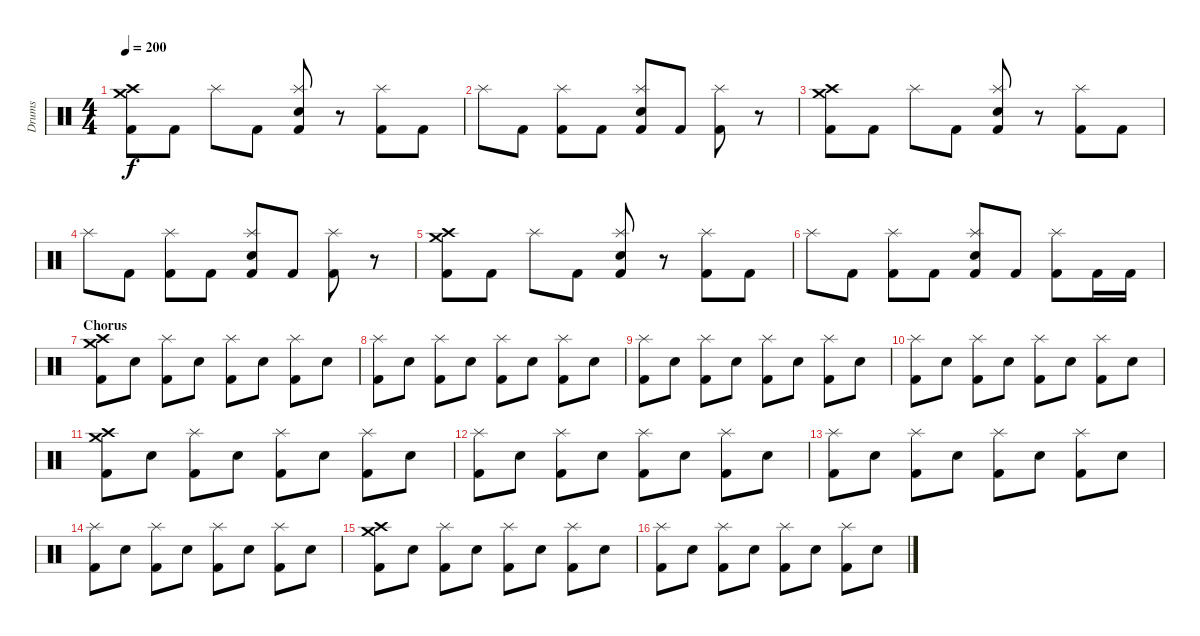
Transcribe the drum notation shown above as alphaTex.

\track ("Drums" "Drums") {instrument percussion}
\staff {score}
\articulation defaults
\ts (4 4)
\tempo 200
\clef neutral
\ks c
("Crash medium (hit)" "Crash high (hit)" "Kick (hit) 2").8{dy f} "Kick (hit) 2".8 "Splash (hit)".8 "Kick (hit) 2".8 ("Splash (hit)" "Snare (hit) 2" "Kick (hit) 2").8 r.8 ("Splash (hit)" "Kick (hit) 2").8 "Kick (hit) 2".8 |
"Splash (hit)".8 "Kick (hit) 2".8 ("Splash (hit)" "Kick (hit) 2").8 "Kick (hit) 2".8 ("Splash (hit)" "Snare (hit) 2" "Kick (hit) 2").8 "Kick (hit) 2".8 ("Splash (hit)" "Kick (hit) 2").8 r.8 |
("Crash medium (hit)" "Crash high (hit)" "Kick (hit) 2").8 "Kick (hit) 2".8 "Splash (hit)".8 "Kick (hit) 2".8 ("Splash (hit)" "Snare (hit) 2" "Kick (hit) 2").8 r.8 ("Splash (hit)" "Kick (hit) 2").8 "Kick (hit) 2".8 |
"Splash (hit)".8 "Kick (hit) 2".8 ("Splash (hit)" "Kick (hit) 2").8 "Kick (hit) 2".8 ("Splash (hit)" "Snare (hit) 2" "Kick (hit) 2").8 "Kick (hit) 2".8 ("Splash (hit)" "Kick (hit) 2").8 r.8 |
("Crash medium (hit)" "Crash high (hit)" "Kick (hit) 2").8 "Kick (hit) 2".8 "Splash (hit)".8 "Kick (hit) 2".8 ("Splash (hit)" "Snare (hit) 2" "Kick (hit) 2").8 r.8 ("Splash (hit)" "Kick (hit) 2").8 "Kick (hit) 2".8 |
"Splash (hit)".8 "Kick (hit) 2".8 ("Splash (hit)" "Kick (hit) 2").8 "Kick (hit) 2".8 ("Splash (hit)" "Snare (hit) 2" "Kick (hit) 2").8 "Kick (hit) 2".8 ("Splash (hit)" "Kick (hit) 2").8 "Kick (hit) 2".16 "Kick (hit) 2".16 |
\section ("" "Chorus")
("Crash medium (hit)" "Crash high (hit)" "Kick (hit) 2").8 "Snare (hit) 2".8 ("Splash (hit)" "Kick (hit) 2").8 "Snare (hit) 2".8 ("Splash (hit)" "Kick (hit) 2").8 "Snare (hit) 2".8 ("Splash (hit)" "Kick (hit) 2").8 "Snare (hit) 2".8 |
("Splash (hit)" "Kick (hit) 2").8 "Snare (hit) 2".8 ("Splash (hit)" "Kick (hit) 2").8 "Snare (hit) 2".8 ("Splash (hit)" "Kick (hit) 2").8 "Snare (hit) 2".8 ("Splash (hit)" "Kick (hit) 2").8 "Snare (hit) 2".8 |
("Splash (hit)" "Kick (hit) 2").8 "Snare (hit) 2".8 ("Splash (hit)" "Kick (hit) 2").8 "Snare (hit) 2".8 ("Splash (hit)" "Kick (hit) 2").8 "Snare (hit) 2".8 ("Splash (hit)" "Kick (hit) 2").8 "Snare (hit) 2".8 |
("Splash (hit)" "Kick (hit) 2").8 "Snare (hit) 2".8 ("Splash (hit)" "Kick (hit) 2").8 "Snare (hit) 2".8 ("Splash (hit)" "Kick (hit) 2").8 "Snare (hit) 2".8 ("Splash (hit)" "Kick (hit) 2").8 "Snare (hit) 2".8 |
("Crash medium (hit)" "Crash high (hit)" "Kick (hit) 2").8 "Snare (hit) 2".8 ("Splash (hit)" "Kick (hit) 2").8 "Snare (hit) 2".8 ("Splash (hit)" "Kick (hit) 2").8 "Snare (hit) 2".8 ("Splash (hit)" "Kick (hit) 2").8 "Snare (hit) 2".8 |
("Splash (hit)" "Kick (hit) 2").8 "Snare (hit) 2".8 ("Splash (hit)" "Kick (hit) 2").8 "Snare (hit) 2".8 ("Splash (hit)" "Kick (hit) 2").8 "Snare (hit) 2".8 ("Splash (hit)" "Kick (hit) 2").8 "Snare (hit) 2".8 |
("Splash (hit)" "Kick (hit) 2").8 "Snare (hit) 2".8 ("Splash (hit)" "Kick (hit) 2").8 "Snare (hit) 2".8 ("Splash (hit)" "Kick (hit) 2").8 "Snare (hit) 2".8 ("Splash (hit)" "Kick (hit) 2").8 "Snare (hit) 2".8 |
("Splash (hit)" "Kick (hit) 2").8 "Snare (hit) 2".8 ("Splash (hit)" "Kick (hit) 2").8 "Snare (hit) 2".8 ("Splash (hit)" "Kick (hit) 2").8 "Snare (hit) 2".8 ("Splash (hit)" "Kick (hit) 2").8 "Snare (hit) 2".8 |
("Crash medium (hit)" "Crash high (hit)" "Kick (hit) 2").8 "Snare (hit) 2".8 ("Splash (hit)" "Kick (hit) 2").8 "Snare (hit) 2".8 ("Splash (hit)" "Kick (hit) 2").8 "Snare (hit) 2".8 ("Splash (hit)" "Kick (hit) 2").8 "Snare (hit) 2".8 |
("Splash (hit)" "Kick (hit) 2").8 "Snare (hit) 2".8 ("Splash (hit)" "Kick (hit) 2").8 "Snare (hit) 2".8 ("Splash (hit)" "Kick (hit) 2").8 "Snare (hit) 2".8 ("Splash (hit)" "Kick (hit) 2").8 "Snare (hit) 2".8
